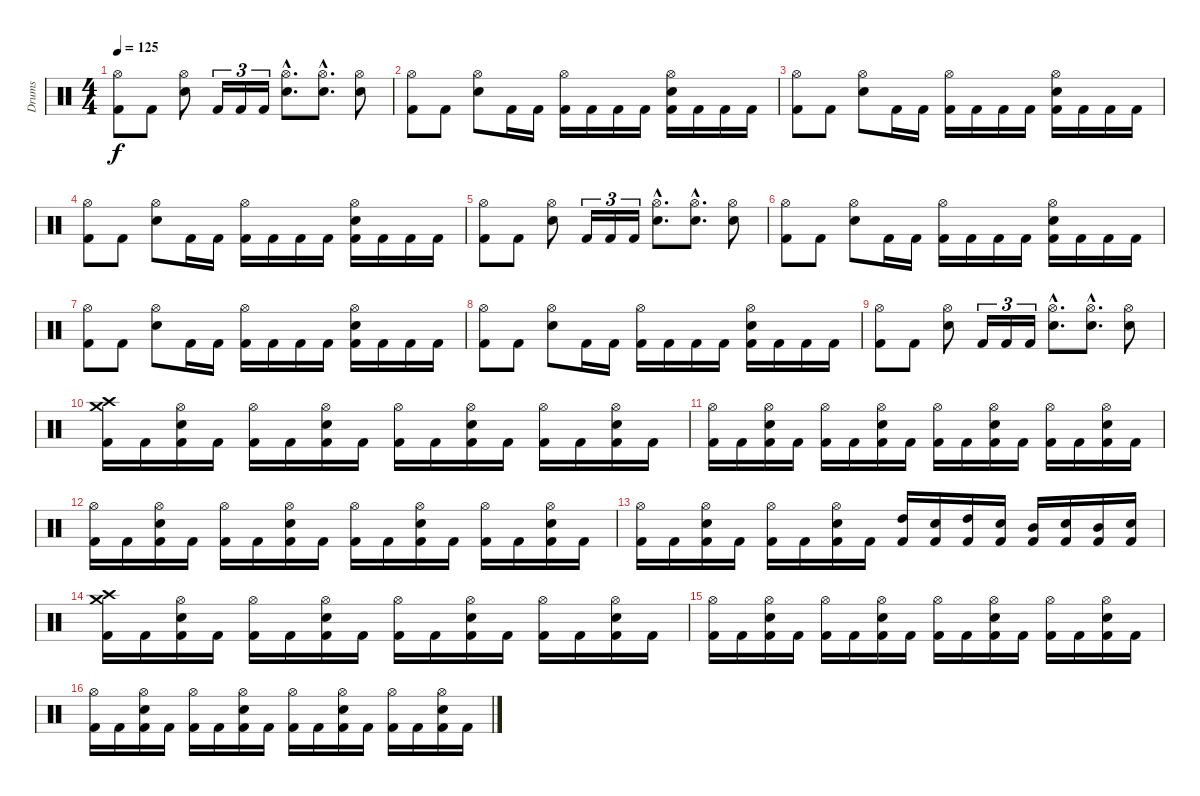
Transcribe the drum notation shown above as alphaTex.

\track ("Drums" "Drums") {instrument percussion}
\staff {score}
\articulation defaults
\ts (4 4)
\tempo 125
\clef neutral
\ks c
("Hi-Hat (open)" "Kick (hit) 2").8{dy f} "Kick (hit) 2".8 ("Hi-Hat (open)" "Electric Snare (hit)").8 "Kick (hit) 2".16{tu (3 2)} "Kick (hit) 2".16{tu (3 2)} "Kick (hit) 2".16{tu (3 2)} ("Hi-Hat (open)"{hac} "Electric Snare (hit)"{hac}).8{d} ("Hi-Hat (open)"{hac} "Electric Snare (hit)"{hac}).8{d} ("Hi-Hat (open)" "Electric Snare (hit)").8 |
("Hi-Hat (open)" "Kick (hit) 2").8 "Kick (hit) 2".8 ("Hi-Hat (open)" "Electric Snare (hit)").8 "Kick (hit) 2".16 "Kick (hit) 2".16 ("Hi-Hat (open)" "Kick (hit) 2").16 "Kick (hit) 2".16 "Kick (hit) 2".16 "Kick (hit) 2".16 ("Hi-Hat (open)" "Electric Snare (hit)" "Kick (hit) 2").16 "Kick (hit) 2".16 "Kick (hit) 2".16 "Kick (hit) 2".16 |
("Hi-Hat (open)" "Kick (hit) 2").8 "Kick (hit) 2".8 ("Hi-Hat (open)" "Electric Snare (hit)").8 "Kick (hit) 2".16 "Kick (hit) 2".16 ("Hi-Hat (open)" "Kick (hit) 2").16 "Kick (hit) 2".16 "Kick (hit) 2".16 "Kick (hit) 2".16 ("Hi-Hat (open)" "Electric Snare (hit)" "Kick (hit) 2").16 "Kick (hit) 2".16 "Kick (hit) 2".16 "Kick (hit) 2".16 |
("Hi-Hat (open)" "Kick (hit) 2").8 "Kick (hit) 2".8 ("Hi-Hat (open)" "Electric Snare (hit)").8 "Kick (hit) 2".16 "Kick (hit) 2".16 ("Hi-Hat (open)" "Kick (hit) 2").16 "Kick (hit) 2".16 "Kick (hit) 2".16 "Kick (hit) 2".16 ("Hi-Hat (open)" "Electric Snare (hit)" "Kick (hit) 2").16 "Kick (hit) 2".16 "Kick (hit) 2".16 "Kick (hit) 2".16 |
("Hi-Hat (open)" "Kick (hit) 2").8 "Kick (hit) 2".8 ("Hi-Hat (open)" "Electric Snare (hit)").8 "Kick (hit) 2".16{tu (3 2)} "Kick (hit) 2".16{tu (3 2)} "Kick (hit) 2".16{tu (3 2)} ("Hi-Hat (open)"{hac} "Electric Snare (hit)"{hac}).8{d} ("Hi-Hat (open)"{hac} "Electric Snare (hit)"{hac}).8{d} ("Hi-Hat (open)" "Electric Snare (hit)").8 |
("Hi-Hat (open)" "Kick (hit) 2").8 "Kick (hit) 2".8 ("Hi-Hat (open)" "Electric Snare (hit)").8 "Kick (hit) 2".16 "Kick (hit) 2".16 ("Hi-Hat (open)" "Kick (hit) 2").16 "Kick (hit) 2".16 "Kick (hit) 2".16 "Kick (hit) 2".16 ("Hi-Hat (open)" "Electric Snare (hit)" "Kick (hit) 2").16 "Kick (hit) 2".16 "Kick (hit) 2".16 "Kick (hit) 2".16 |
("Hi-Hat (open)" "Kick (hit) 2").8 "Kick (hit) 2".8 ("Hi-Hat (open)" "Electric Snare (hit)").8 "Kick (hit) 2".16 "Kick (hit) 2".16 ("Hi-Hat (open)" "Kick (hit) 2").16 "Kick (hit) 2".16 "Kick (hit) 2".16 "Kick (hit) 2".16 ("Hi-Hat (open)" "Electric Snare (hit)" "Kick (hit) 2").16 "Kick (hit) 2".16 "Kick (hit) 2".16 "Kick (hit) 2".16 |
("Hi-Hat (open)" "Kick (hit) 2").8 "Kick (hit) 2".8 ("Hi-Hat (open)" "Electric Snare (hit)").8 "Kick (hit) 2".16 "Kick (hit) 2".16 ("Hi-Hat (open)" "Kick (hit) 2").16 "Kick (hit) 2".16 "Kick (hit) 2".16 "Kick (hit) 2".16 ("Hi-Hat (open)" "Electric Snare (hit)" "Kick (hit) 2").16 "Kick (hit) 2".16 "Kick (hit) 2".16 "Kick (hit) 2".16 |
("Hi-Hat (open)" "Kick (hit) 2").8 "Kick (hit) 2".8 ("Hi-Hat (open)" "Electric Snare (hit)").8 "Kick (hit) 2".16{tu (3 2)} "Kick (hit) 2".16{tu (3 2)} "Kick (hit) 2".16{tu (3 2)} ("Hi-Hat (open)"{hac} "Electric Snare (hit)"{hac}).8{d} ("Hi-Hat (open)"{hac} "Electric Snare (hit)"{hac}).8{d} ("Hi-Hat (open)" "Electric Snare (hit)").8 |
("Crash high (hit)" "Crash medium (hit)" "Kick (hit) 2").16 "Kick (hit) 2".16 ("Hi-Hat (open)" "Electric Snare (hit)" "Kick (hit) 2").16 "Kick (hit) 2".16 ("Hi-Hat (open)" "Kick (hit) 2").16 "Kick (hit) 2".16 ("Hi-Hat (open)" "Electric Snare (hit)" "Kick (hit) 2").16 "Kick (hit) 2".16 ("Hi-Hat (open)" "Kick (hit) 2").16 "Kick (hit) 2".16 ("Hi-Hat (open)" "Electric Snare (hit)" "Kick (hit) 2").16 "Kick (hit) 2".16 ("Hi-Hat (open)" "Kick (hit) 2").16 "Kick (hit) 2".16 ("Hi-Hat (open)" "Electric Snare (hit)" "Kick (hit) 2").16 "Kick (hit) 2".16 |
("Hi-Hat (open)" "Kick (hit) 2").16 "Kick (hit) 2".16 ("Hi-Hat (open)" "Electric Snare (hit)" "Kick (hit) 2").16 "Kick (hit) 2".16 ("Hi-Hat (open)" "Kick (hit) 2").16 "Kick (hit) 2".16 ("Hi-Hat (open)" "Electric Snare (hit)" "Kick (hit) 2").16 "Kick (hit) 2".16 ("Hi-Hat (open)" "Kick (hit) 2").16 "Kick (hit) 2".16 ("Hi-Hat (open)" "Electric Snare (hit)" "Kick (hit) 2").16 "Kick (hit) 2".16 ("Hi-Hat (open)" "Kick (hit) 2").16 "Kick (hit) 2".16 ("Hi-Hat (open)" "Electric Snare (hit)" "Kick (hit) 2").16 "Kick (hit) 2".16 |
("Hi-Hat (open)" "Kick (hit) 2").16 "Kick (hit) 2".16 ("Hi-Hat (open)" "Electric Snare (hit)" "Kick (hit) 2").16 "Kick (hit) 2".16 ("Hi-Hat (open)" "Kick (hit) 2").16 "Kick (hit) 2".16 ("Hi-Hat (open)" "Electric Snare (hit)" "Kick (hit) 2").16 "Kick (hit) 2".16 ("Hi-Hat (open)" "Kick (hit) 2").16 "Kick (hit) 2".16 ("Hi-Hat (open)" "Electric Snare (hit)" "Kick (hit) 2").16 "Kick (hit) 2".16 ("Hi-Hat (open)" "Kick (hit) 2").16 "Kick (hit) 2".16 ("Hi-Hat (open)" "Electric Snare (hit)" "Kick (hit) 2").16 "Kick (hit) 2".16 |
("Hi-Hat (open)" "Kick (hit) 2").16 "Kick (hit) 2".16 ("Hi-Hat (open)" "Electric Snare (hit)" "Kick (hit) 2").16 "Kick (hit) 2".16 ("Hi-Hat (open)" "Kick (hit) 2").16 "Kick (hit) 2".16 ("Hi-Hat (open)" "Electric Snare (hit)" "Kick (hit) 2").16 "Kick (hit) 2".16 ("High Tom (hit)" "Kick (hit) 2").16 ("Electric Snare (hit)" "Kick (hit) 2").16 ("High Tom (hit)" "Kick (hit) 2").16 ("Electric Snare (hit)" "Kick (hit) 2").16 ("Mid Tom (hit)" "Kick (hit) 2").16 ("Electric Snare (hit)" "Kick (hit) 2").16 ("Mid Tom (hit)" "Kick (hit) 2").16 ("Electric Snare (hit)" "Kick (hit) 2").16 |
("Crash high (hit)" "Crash medium (hit)" "Kick (hit) 2").16 "Kick (hit) 2".16 ("Hi-Hat (open)" "Electric Snare (hit)" "Kick (hit) 2").16 "Kick (hit) 2".16 ("Hi-Hat (open)" "Kick (hit) 2").16 "Kick (hit) 2".16 ("Hi-Hat (open)" "Electric Snare (hit)" "Kick (hit) 2").16 "Kick (hit) 2".16 ("Hi-Hat (open)" "Kick (hit) 2").16 "Kick (hit) 2".16 ("Hi-Hat (open)" "Electric Snare (hit)" "Kick (hit) 2").16 "Kick (hit) 2".16 ("Hi-Hat (open)" "Kick (hit) 2").16 "Kick (hit) 2".16 ("Hi-Hat (open)" "Electric Snare (hit)" "Kick (hit) 2").16 "Kick (hit) 2".16 |
("Hi-Hat (open)" "Kick (hit) 2").16 "Kick (hit) 2".16 ("Hi-Hat (open)" "Electric Snare (hit)" "Kick (hit) 2").16 "Kick (hit) 2".16 ("Hi-Hat (open)" "Kick (hit) 2").16 "Kick (hit) 2".16 ("Hi-Hat (open)" "Electric Snare (hit)" "Kick (hit) 2").16 "Kick (hit) 2".16 ("Hi-Hat (open)" "Kick (hit) 2").16 "Kick (hit) 2".16 ("Hi-Hat (open)" "Electric Snare (hit)" "Kick (hit) 2").16 "Kick (hit) 2".16 ("Hi-Hat (open)" "Kick (hit) 2").16 "Kick (hit) 2".16 ("Hi-Hat (open)" "Electric Snare (hit)" "Kick (hit) 2").16 "Kick (hit) 2".16 |
("Hi-Hat (open)" "Kick (hit) 2").16 "Kick (hit) 2".16 ("Hi-Hat (open)" "Electric Snare (hit)" "Kick (hit) 2").16 "Kick (hit) 2".16 ("Hi-Hat (open)" "Kick (hit) 2").16 "Kick (hit) 2".16 ("Hi-Hat (open)" "Electric Snare (hit)" "Kick (hit) 2").16 "Kick (hit) 2".16 ("Hi-Hat (open)" "Kick (hit) 2").16 "Kick (hit) 2".16 ("Hi-Hat (open)" "Electric Snare (hit)" "Kick (hit) 2").16 "Kick (hit) 2".16 ("Hi-Hat (open)" "Kick (hit) 2").16 "Kick (hit) 2".16 ("Hi-Hat (open)" "Electric Snare (hit)" "Kick (hit) 2").16 "Kick (hit) 2".16
